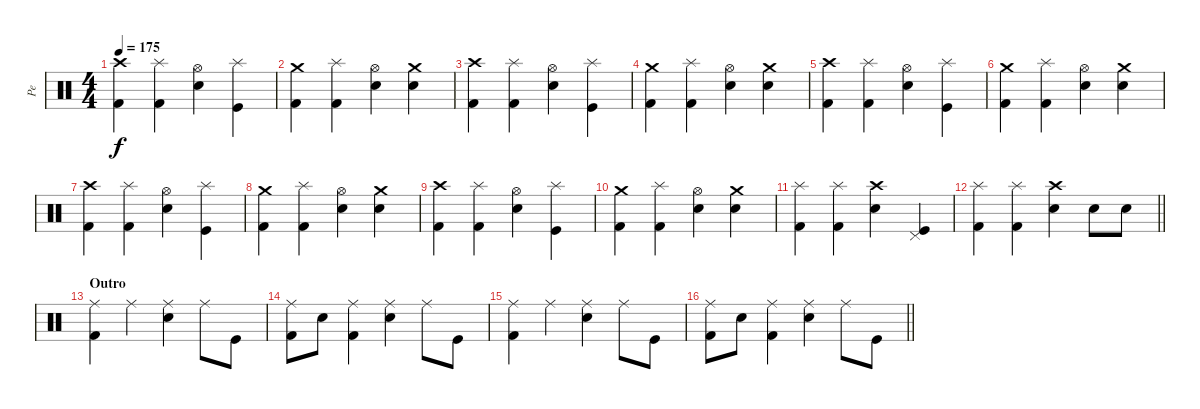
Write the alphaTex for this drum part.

\track ("Pe" "Pe") {instrument percussion}
\staff {score}
\articulation defaults
\ts (4 4)
\tempo 175
\clef neutral
\ks c
("Kick (hit) 2" "Crash high (hit)").4{dy f} ("Kick (hit) 2" "Splash (hit)").4 ("Electric Snare (hit)" "Hi-Hat (open)").4 ("Kick (hit)" "Splash (hit)").4 |
("Kick (hit) 2" "Crash medium (hit)").4 ("Kick (hit) 2" "Splash (hit)").4 ("Electric Snare (hit)" "Hi-Hat (open)").4 ("Electric Snare (hit)" "Crash medium (hit)").4 |
("Kick (hit) 2" "Crash high (hit)").4 ("Kick (hit) 2" "Splash (hit)").4 ("Electric Snare (hit)" "Hi-Hat (open)").4 ("Kick (hit)" "Splash (hit)").4 |
("Kick (hit) 2" "Crash medium (hit)").4 ("Kick (hit) 2" "Splash (hit)").4 ("Electric Snare (hit)" "Hi-Hat (open)").4 ("Electric Snare (hit)" "Crash medium (hit)").4 |
("Kick (hit) 2" "Crash high (hit)").4 ("Kick (hit) 2" "Splash (hit)").4 ("Electric Snare (hit)" "Hi-Hat (open)").4 ("Kick (hit)" "Splash (hit)").4 |
("Kick (hit) 2" "Crash medium (hit)").4 ("Kick (hit) 2" "Splash (hit)").4 ("Electric Snare (hit)" "Hi-Hat (open)").4 ("Electric Snare (hit)" "Crash medium (hit)").4 |
("Kick (hit) 2" "Crash high (hit)").4 ("Kick (hit) 2" "Splash (hit)").4 ("Electric Snare (hit)" "Hi-Hat (open)").4 ("Kick (hit)" "Splash (hit)").4 |
("Kick (hit) 2" "Crash medium (hit)").4 ("Kick (hit) 2" "Splash (hit)").4 ("Electric Snare (hit)" "Hi-Hat (open)").4 ("Electric Snare (hit)" "Crash medium (hit)").4 |
("Kick (hit) 2" "Crash high (hit)").4 ("Kick (hit) 2" "Splash (hit)").4 ("Electric Snare (hit)" "Hi-Hat (open)").4 ("Kick (hit)" "Splash (hit)").4 |
("Kick (hit) 2" "Crash medium (hit)").4 ("Kick (hit) 2" "Splash (hit)").4 ("Electric Snare (hit)" "Hi-Hat (open)").4 ("Electric Snare (hit)" "Crash medium (hit)").4 |
("Kick (hit) 2" "Splash (hit)").4 ("Kick (hit) 2" "Splash (hit)").4 ("Electric Snare (hit)" "Crash high (hit)").4 ("Kick (hit)" "Pedal Hi-Hat (hit)").4 |
\barLineRight lightlight
("Kick (hit) 2" "Splash (hit)").4 ("Kick (hit) 2" "Splash (hit)").4 ("Electric Snare (hit)" "Crash high (hit)").4 "Electric Snare (hit)".8 "Electric Snare (hit)".8 |
\section ("" "Outro")
("Kick (hit) 2" "Ride (middle)").4{volume 0} "Ride (middle)".4 ("Electric Snare (hit)" "Ride (middle)").4 "Ride (middle)".8 "Kick (hit)".8 |
("Kick (hit) 2" "Ride (middle)").8 "Electric Snare (hit)".8 ("Kick (hit) 2" "Ride (middle)").4 ("Electric Snare (hit)" "Ride (middle)").4 "Ride (middle)".8 "Kick (hit)".8 |
("Kick (hit) 2" "Ride (middle)").4 "Ride (middle)".4 ("Electric Snare (hit)" "Ride (middle)").4 "Ride (middle)".8 "Kick (hit)".8 |
\barLineRight lightlight
("Kick (hit) 2" "Ride (middle)").8 "Electric Snare (hit)".8 ("Kick (hit) 2" "Ride (middle)").4 ("Electric Snare (hit)" "Ride (middle)").4 "Ride (middle)".8 "Kick (hit)".8
